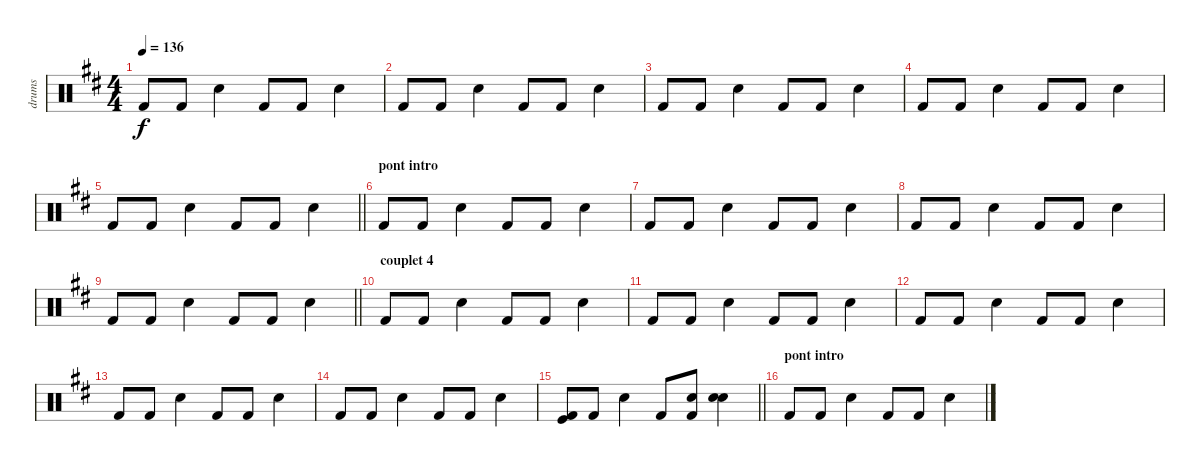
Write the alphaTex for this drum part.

\track ("drums" "drums") {instrument percussion}
\staff {score}
\articulation defaults
\ts (4 4)
\tempo 136
\clef neutral
\ks d "Kick (hit) 2".8{dy f} "Kick (hit) 2".8 "Electric Snare (hit)".4 "Kick (hit) 2".8 "Kick (hit) 2".8 "Electric Snare (hit)".4
|
"Kick (hit) 2".8 "Kick (hit) 2".8 "Electric Snare (hit)".4 "Kick (hit) 2".8 "Kick (hit) 2".8 "Electric Snare (hit)".4 |
"Kick (hit) 2".8 "Kick (hit) 2".8 "Electric Snare (hit)".4 "Kick (hit) 2".8 "Kick (hit) 2".8 "Electric Snare (hit)".4 |
"Kick (hit) 2".8 "Kick (hit) 2".8 "Electric Snare (hit)".4 "Kick (hit) 2".8 "Kick (hit) 2".8 "Electric Snare (hit)".4 |
\barLineRight lightlight "Kick (hit) 2".8 "Kick (hit) 2".8 "Electric Snare (hit)".4 "Kick (hit) 2".8 "Kick (hit) 2".8 "Electric Snare (hit)".4
|
\section ("" "pont intro")
"Kick (hit) 2".8 "Kick (hit) 2".8 "Electric Snare (hit)".4 "Kick (hit) 2".8 "Kick (hit) 2".8 "Electric Snare (hit)".4 |
"Kick (hit) 2".8 "Kick (hit) 2".8 "Electric Snare (hit)".4 "Kick (hit) 2".8 "Kick (hit) 2".8 "Electric Snare (hit)".4 |
"Kick (hit) 2".8 "Kick (hit) 2".8 "Electric Snare (hit)".4 "Kick (hit) 2".8 "Kick (hit) 2".8 "Electric Snare (hit)".4 |
\barLineRight lightlight "Kick (hit) 2".8 "Kick (hit) 2".8 "Electric Snare (hit)".4 "Kick (hit) 2".8 "Kick (hit) 2".8 "Electric Snare (hit)".4
|
\section ("" "couplet 4")
"Kick (hit) 2".8 "Kick (hit) 2".8 "Electric Snare (hit)".4 "Kick (hit) 2".8 "Kick (hit) 2".8 "Electric Snare (hit)".4 |
"Kick (hit) 2".8 "Kick (hit) 2".8 "Electric Snare (hit)".4 "Kick (hit) 2".8 "Kick (hit) 2".8 "Electric Snare (hit)".4 |
"Kick (hit) 2".8 "Kick (hit) 2".8 "Electric Snare (hit)".4 "Kick (hit) 2".8 "Kick (hit) 2".8 "Electric Snare (hit)".4 |
"Kick (hit) 2".8 "Kick (hit) 2".8 "Electric Snare (hit)".4 "Kick (hit) 2".8 "Kick (hit) 2".8 "Electric Snare (hit)".4 |
"Kick (hit) 2".8 "Kick (hit) 2".8 "Electric Snare (hit)".4 "Kick (hit) 2".8 "Kick (hit) 2".8 "Electric Snare (hit)".4 |
\barLineRight lightlight
("Kick (hit)" "Kick (hit) 2").8 "Kick (hit) 2".8 "Electric Snare (hit)".4 "Kick (hit) 2".8 ("Hand Clap (hit)" "Kick (hit) 2").8 ("Hand Clap (hit)" "Electric Snare (hit)").4 |
\section ("" "pont intro")
"Kick (hit) 2".8 "Kick (hit) 2".8 "Electric Snare (hit)".4 "Kick (hit) 2".8 "Kick (hit) 2".8 "Electric Snare (hit)".4
